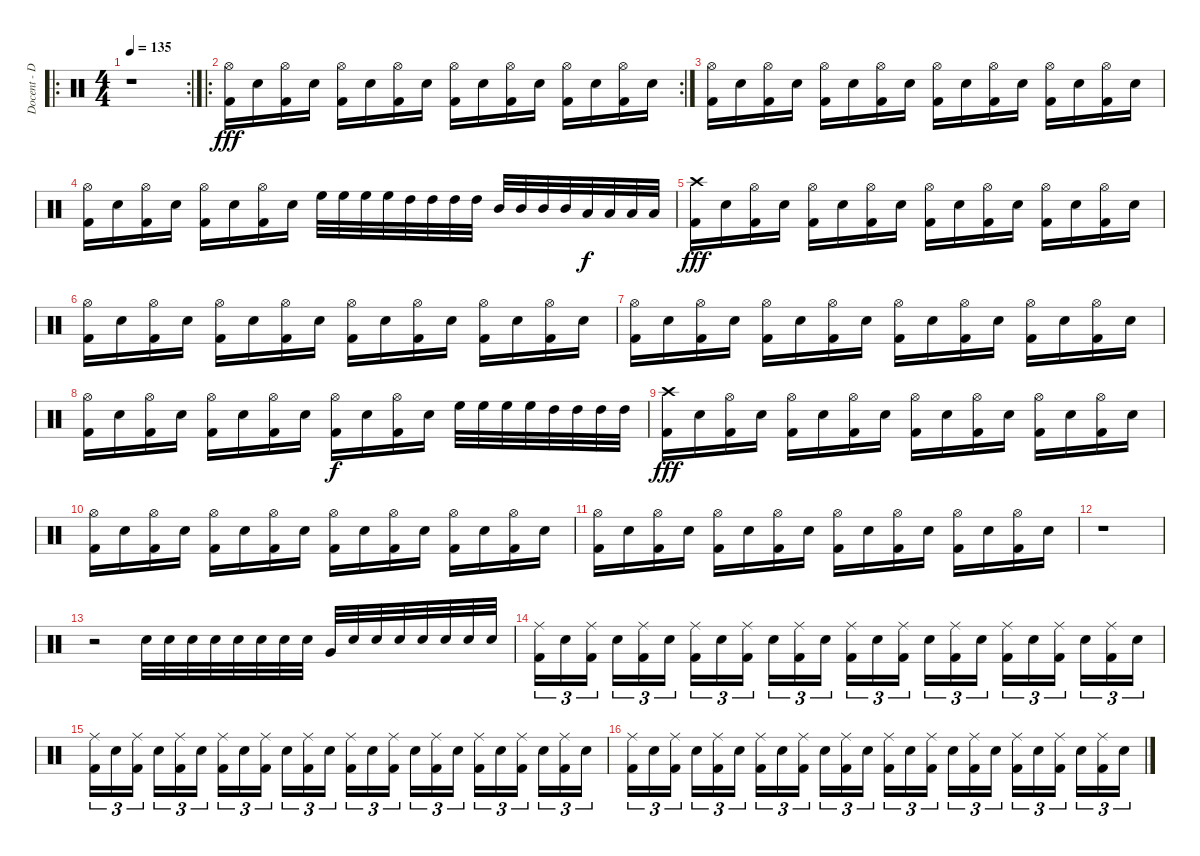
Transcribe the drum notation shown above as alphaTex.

\track ("Docent - Drums" "Docent - D") {instrument percussion}
\staff {score}
\articulation defaults
\ro
\rc 2
\ts (4 4)
\tempo 135
\clef neutral
\ks c
r.1{dy fff} |
\ro
\rc 2
("Hi-Hat (open)" "Kick (hit) 2").16 "Electric Snare (hit)".16 ("Hi-Hat (open)" "Kick (hit) 2").16 "Electric Snare (hit)".16 ("Hi-Hat (open)" "Kick (hit) 2").16 "Electric Snare (hit)".16 ("Hi-Hat (open)" "Kick (hit) 2").16 "Electric Snare (hit)".16 ("Hi-Hat (open)" "Kick (hit) 2").16 "Electric Snare (hit)".16 ("Hi-Hat (open)" "Kick (hit) 2").16 "Electric Snare (hit)".16 ("Hi-Hat (open)" "Kick (hit) 2").16 "Electric Snare (hit)".16 ("Hi-Hat (open)" "Kick (hit) 2").16 "Electric Snare (hit)".16 |
("Hi-Hat (open)" "Kick (hit) 2").16 "Electric Snare (hit)".16 ("Hi-Hat (open)" "Kick (hit) 2").16 "Electric Snare (hit)".16 ("Hi-Hat (open)" "Kick (hit) 2").16 "Electric Snare (hit)".16 ("Hi-Hat (open)" "Kick (hit) 2").16 "Electric Snare (hit)".16 ("Hi-Hat (open)" "Kick (hit) 2").16 "Electric Snare (hit)".16 ("Hi-Hat (open)" "Kick (hit) 2").16 "Electric Snare (hit)".16 ("Hi-Hat (open)" "Kick (hit) 2").16 "Electric Snare (hit)".16 ("Hi-Hat (open)" "Kick (hit) 2").16 "Electric Snare (hit)".16 |
("Hi-Hat (open)" "Kick (hit) 2").16 "Electric Snare (hit)".16 ("Hi-Hat (open)" "Kick (hit) 2").16 "Electric Snare (hit)".16 ("Hi-Hat (open)" "Kick (hit) 2").16 "Electric Snare (hit)".16 ("Hi-Hat (open)" "Kick (hit) 2").16 "Electric Snare (hit)".16 "High Floor Tom (hit)".32 "High Floor Tom (hit)".32 "High Floor Tom (hit)".32 "High Floor Tom (hit)".32 "High Tom (hit)".32 "High Tom (hit)".32 "High Tom (hit)".32 "High Tom (hit)".32 "Mid Tom (hit)".32 "Mid Tom (hit)".32 "Mid Tom (hit)".32 "Mid Tom (hit)".32 "Low Tom (hit)".32{dy f} "Low Tom (hit)".32 "Low Tom (hit)".32 "Low Tom (hit)".32 |
("Crash high (hit)" "Kick (hit) 2").16{dy fff} "Electric Snare (hit)".16 ("Hi-Hat (open)" "Kick (hit) 2").16 "Electric Snare (hit)".16 ("Hi-Hat (open)" "Kick (hit) 2").16 "Electric Snare (hit)".16 ("Hi-Hat (open)" "Kick (hit) 2").16 "Electric Snare (hit)".16 ("Hi-Hat (open)" "Kick (hit) 2").16 "Electric Snare (hit)".16 ("Hi-Hat (open)" "Kick (hit) 2").16 "Electric Snare (hit)".16 ("Hi-Hat (open)" "Kick (hit) 2").16 "Electric Snare (hit)".16 ("Hi-Hat (open)" "Kick (hit) 2").16 "Electric Snare (hit)".16 |
("Hi-Hat (open)" "Kick (hit) 2").16 "Electric Snare (hit)".16 ("Hi-Hat (open)" "Kick (hit) 2").16 "Electric Snare (hit)".16 ("Hi-Hat (open)" "Kick (hit) 2").16 "Electric Snare (hit)".16 ("Hi-Hat (open)" "Kick (hit) 2").16 "Electric Snare (hit)".16 ("Hi-Hat (open)" "Kick (hit) 2").16 "Electric Snare (hit)".16 ("Hi-Hat (open)" "Kick (hit) 2").16 "Electric Snare (hit)".16 ("Hi-Hat (open)" "Kick (hit) 2").16 "Electric Snare (hit)".16 ("Hi-Hat (open)" "Kick (hit) 2").16 "Electric Snare (hit)".16 |
("Hi-Hat (open)" "Kick (hit) 2").16 "Electric Snare (hit)".16 ("Hi-Hat (open)" "Kick (hit) 2").16 "Electric Snare (hit)".16 ("Hi-Hat (open)" "Kick (hit) 2").16 "Electric Snare (hit)".16 ("Hi-Hat (open)" "Kick (hit) 2").16 "Electric Snare (hit)".16 ("Hi-Hat (open)" "Kick (hit) 2").16 "Electric Snare (hit)".16 ("Hi-Hat (open)" "Kick (hit) 2").16 "Electric Snare (hit)".16 ("Hi-Hat (open)" "Kick (hit) 2").16 "Electric Snare (hit)".16 ("Hi-Hat (open)" "Kick (hit) 2").16 "Electric Snare (hit)".16 |
("Hi-Hat (open)" "Kick (hit) 2").16 "Electric Snare (hit)".16 ("Hi-Hat (open)" "Kick (hit) 2").16 "Electric Snare (hit)".16 ("Hi-Hat (open)" "Kick (hit) 2").16 "Electric Snare (hit)".16 ("Hi-Hat (open)" "Kick (hit) 2").16 "Electric Snare (hit)".16 ("Hi-Hat (open)" "Kick (hit) 2").16{dy f} "Electric Snare (hit)".16 ("Hi-Hat (open)" "Kick (hit) 2").16 "Electric Snare (hit)".16 "High Floor Tom (hit)".32 "High Floor Tom (hit)".32 "High Floor Tom (hit)".32 "High Floor Tom (hit)".32 "High Tom (hit)".32 "High Tom (hit)".32 "High Tom (hit)".32 "High Tom (hit)".32 |
("Crash high (hit)" "Kick (hit) 2").16{dy fff} "Electric Snare (hit)".16 ("Hi-Hat (open)" "Kick (hit) 2").16 "Electric Snare (hit)".16 ("Hi-Hat (open)" "Kick (hit) 2").16 "Electric Snare (hit)".16 ("Hi-Hat (open)" "Kick (hit) 2").16 "Electric Snare (hit)".16 ("Hi-Hat (open)" "Kick (hit) 2").16 "Electric Snare (hit)".16 ("Hi-Hat (open)" "Kick (hit) 2").16 "Electric Snare (hit)".16 ("Hi-Hat (open)" "Kick (hit) 2").16 "Electric Snare (hit)".16 ("Hi-Hat (open)" "Kick (hit) 2").16 "Electric Snare (hit)".16 |
("Hi-Hat (open)" "Kick (hit) 2").16 "Electric Snare (hit)".16 ("Hi-Hat (open)" "Kick (hit) 2").16 "Electric Snare (hit)".16 ("Hi-Hat (open)" "Kick (hit) 2").16 "Electric Snare (hit)".16 ("Hi-Hat (open)" "Kick (hit) 2").16 "Electric Snare (hit)".16 ("Hi-Hat (open)" "Kick (hit) 2").16 "Electric Snare (hit)".16 ("Hi-Hat (open)" "Kick (hit) 2").16 "Electric Snare (hit)".16 ("Hi-Hat (open)" "Kick (hit) 2").16 "Electric Snare (hit)".16 ("Hi-Hat (open)" "Kick (hit) 2").16 "Electric Snare (hit)".16 |
("Hi-Hat (open)" "Kick (hit) 2").16 "Electric Snare (hit)".16 ("Hi-Hat (open)" "Kick (hit) 2").16 "Electric Snare (hit)".16 ("Hi-Hat (open)" "Kick (hit) 2").16 "Electric Snare (hit)".16 ("Hi-Hat (open)" "Kick (hit) 2").16 "Electric Snare (hit)".16 ("Hi-Hat (open)" "Kick (hit) 2").16 "Electric Snare (hit)".16 ("Hi-Hat (open)" "Kick (hit) 2").16 "Electric Snare (hit)".16 ("Hi-Hat (open)" "Kick (hit) 2").16 "Electric Snare (hit)".16 ("Hi-Hat (open)" "Kick (hit) 2").16 "Electric Snare (hit)".16 |
r.1 |
r.2 "Electric Snare (hit)".32 "Electric Snare (hit)".32 "Electric Snare (hit)".32 "Electric Snare (hit)".32 "Electric Snare (hit)".32 "Electric Snare (hit)".32 "Electric Snare (hit)".32 "Electric Snare (hit)".32 "Very Low Tom (hit)".32 "Electric Snare (hit)".32 "Electric Snare (hit)".32 "Electric Snare (hit)".32 "Electric Snare (hit)".32 "Electric Snare (hit)".32 "Electric Snare (hit)".32 "Electric Snare (hit)".32 |
("Ride (middle)" "Kick (hit) 2").16{tu (3 2)} "Electric Snare (hit)".16{tu (3 2)} ("Ride (middle)" "Kick (hit) 2").16{tu (3 2)} "Electric Snare (hit)".16{tu (3 2)} ("Ride (middle)" "Kick (hit) 2").16{tu (3 2)} "Electric Snare (hit)".16{tu (3 2)} ("Ride (middle)" "Kick (hit) 2").16{tu (3 2)} "Electric Snare (hit)".16{tu (3 2)} ("Ride (middle)" "Kick (hit) 2").16{tu (3 2)} "Electric Snare (hit)".16{tu (3 2)} ("Ride (middle)" "Kick (hit) 2").16{tu (3 2)} "Electric Snare (hit)".16{tu (3 2)} ("Ride (middle)" "Kick (hit) 2").16{tu (3 2)} "Electric Snare (hit)".16{tu (3 2)} ("Ride (middle)" "Kick (hit) 2").16{tu (3 2)} "Electric Snare (hit)".16{tu (3 2)} ("Ride (middle)" "Kick (hit) 2").16{tu (3 2)} "Electric Snare (hit)".16{tu (3 2)} ("Ride (middle)" "Kick (hit) 2").16{tu (3 2)} "Electric Snare (hit)".16{tu (3 2)} ("Ride (middle)" "Kick (hit) 2").16{tu (3 2)} "Electric Snare (hit)".16{tu (3 2)} ("Ride (middle)" "Kick (hit) 2").16{tu (3 2)} "Electric Snare (hit)".16{tu (3 2)} |
("Ride (middle)" "Kick (hit) 2").16{tu (3 2)} "Electric Snare (hit)".16{tu (3 2)} ("Ride (middle)" "Kick (hit) 2").16{tu (3 2)} "Electric Snare (hit)".16{tu (3 2)} ("Ride (middle)" "Kick (hit) 2").16{tu (3 2)} "Electric Snare (hit)".16{tu (3 2)} ("Ride (middle)" "Kick (hit) 2").16{tu (3 2)} "Electric Snare (hit)".16{tu (3 2)} ("Ride (middle)" "Kick (hit) 2").16{tu (3 2)} "Electric Snare (hit)".16{tu (3 2)} ("Ride (middle)" "Kick (hit) 2").16{tu (3 2)} "Electric Snare (hit)".16{tu (3 2)} ("Ride (middle)" "Kick (hit) 2").16{tu (3 2)} "Electric Snare (hit)".16{tu (3 2)} ("Ride (middle)" "Kick (hit) 2").16{tu (3 2)} "Electric Snare (hit)".16{tu (3 2)} ("Ride (middle)" "Kick (hit) 2").16{tu (3 2)} "Electric Snare (hit)".16{tu (3 2)} ("Ride (middle)" "Kick (hit) 2").16{tu (3 2)} "Electric Snare (hit)".16{tu (3 2)} ("Ride (middle)" "Kick (hit) 2").16{tu (3 2)} "Electric Snare (hit)".16{tu (3 2)} ("Ride (middle)" "Kick (hit) 2").16{tu (3 2)} "Electric Snare (hit)".16{tu (3 2)} |
("Ride (middle)" "Kick (hit) 2").16{tu (3 2)} "Electric Snare (hit)".16{tu (3 2)} ("Ride (middle)" "Kick (hit) 2").16{tu (3 2)} "Electric Snare (hit)".16{tu (3 2)} ("Ride (middle)" "Kick (hit) 2").16{tu (3 2)} "Electric Snare (hit)".16{tu (3 2)} ("Ride (middle)" "Kick (hit) 2").16{tu (3 2)} "Electric Snare (hit)".16{tu (3 2)} ("Ride (middle)" "Kick (hit) 2").16{tu (3 2)} "Electric Snare (hit)".16{tu (3 2)} ("Ride (middle)" "Kick (hit) 2").16{tu (3 2)} "Electric Snare (hit)".16{tu (3 2)} ("Ride (middle)" "Kick (hit) 2").16{tu (3 2)} "Electric Snare (hit)".16{tu (3 2)} ("Ride (middle)" "Kick (hit) 2").16{tu (3 2)} "Electric Snare (hit)".16{tu (3 2)} ("Ride (middle)" "Kick (hit) 2").16{tu (3 2)} "Electric Snare (hit)".16{tu (3 2)} ("Ride (middle)" "Kick (hit) 2").16{tu (3 2)} "Electric Snare (hit)".16{tu (3 2)} ("Ride (middle)" "Kick (hit) 2").16{tu (3 2)} "Electric Snare (hit)".16{tu (3 2)} ("Ride (middle)" "Kick (hit) 2").16{tu (3 2)} "Electric Snare (hit)".16{tu (3 2)}
